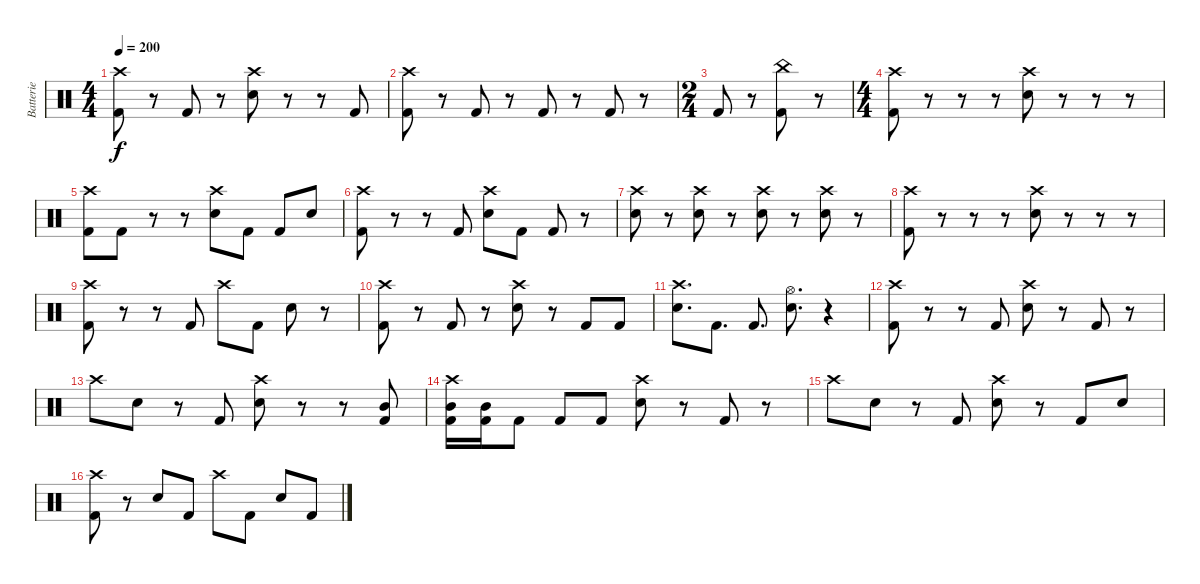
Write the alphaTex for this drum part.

\track ("Batterie" "Batterie") {instrument percussion}
\staff {score}
\articulation defaults
\ts (4 4)
\tempo 200
\clef neutral
\ks c
("Crash high (hit)" "Kick (hit) 2").8{dy f} r.8 "Kick (hit) 2".8 r.8 ("Crash high (hit)" "Electric Snare (hit)").8 r.8 r.8 "Kick (hit) 2".8 |
("Crash high (hit)" "Kick (hit) 2").8 r.8 "Kick (hit) 2".8 r.8 "Kick (hit) 2".8 r.8 "Kick (hit) 2".8 r.8 |
\ts (2 4)
"Kick (hit) 2".8 r.8 ("China (hit)" "Kick (hit) 2").8 r.8 |
\ts (4 4)
("Crash high (hit)" "Kick (hit) 2").8 r.8 r.8 r.8 ("Crash high (hit)" "Electric Snare (hit)").8 r.8 r.8 r.8 |
("Crash high (hit)" "Kick (hit) 2").8 "Kick (hit) 2".8 r.8 r.8 ("Crash high (hit)" "Electric Snare (hit)").8 "Kick (hit) 2".8 "Kick (hit) 2".8 "Electric Snare (hit)".8 |
("Crash high (hit)" "Kick (hit) 2").8 r.8 r.8 "Kick (hit) 2".8 ("Crash high (hit)" "Electric Snare (hit)").8 "Kick (hit) 2".8 "Kick (hit) 2".8 r.8 |
("Crash high (hit)" "Electric Snare (hit)").8 r.8 ("Crash high (hit)" "Electric Snare (hit)").8 r.8 ("Crash high (hit)" "Electric Snare (hit)").8 r.8 ("Crash high (hit)" "Electric Snare (hit)").8 r.8 |
("Crash high (hit)" "Kick (hit) 2").8 r.8 r.8 r.8 ("Crash high (hit)" "Electric Snare (hit)").8 r.8 r.8 r.8 |
("Crash high (hit)" "Kick (hit) 2").8 r.8 r.8 "Kick (hit) 2".8 "Crash high (hit)".8 "Kick (hit) 2".8 "Electric Snare (hit)".8 r.8 |
("Crash high (hit)" "Kick (hit) 2").8 r.8 "Kick (hit) 2".8 r.8 ("Crash high (hit)" "Electric Snare (hit)").8 r.8 "Kick (hit) 2".8 "Kick (hit) 2".8 |
("Crash high (hit)" "Electric Snare (hit)").8{d} "Kick (hit) 2".8{d} "Kick (hit) 2".8{d} ("Hi-Hat (open)" "Electric Snare (hit)").8{d} r.4 |
("Crash high (hit)" "Kick (hit) 2").8 r.8 r.8 "Kick (hit) 2".8 ("Crash high (hit)" "Electric Snare (hit)").8 r.8 "Kick (hit) 2".8 r.8 |
"Crash high (hit)".8 "Electric Snare (hit)".8 r.8 "Kick (hit) 2".8 ("Crash high (hit)" "Electric Snare (hit)").8 r.8 r.8 ("Mid Tom (hit)" "Kick (hit) 2").8 |
("Crash high (hit)" "Mid Tom (hit)" "Kick (hit) 2").16 ("Mid Tom (hit)" "Kick (hit) 2").16 "Kick (hit) 2".8 "Kick (hit) 2".8 "Kick (hit) 2".8 ("Crash high (hit)" "Electric Snare (hit)").8 r.8 "Kick (hit) 2".8 r.8 |
"Crash high (hit)".8 "Electric Snare (hit)".8 r.8 "Kick (hit) 2".8 ("Crash high (hit)" "Electric Snare (hit)").8 r.8 "Kick (hit) 2".8 "Electric Snare (hit)".8 |
("Crash high (hit)" "Kick (hit) 2").8 r.8 "Electric Snare (hit)".8 "Kick (hit) 2".8 "Crash high (hit)".8 "Kick (hit) 2".8 "Electric Snare (hit)".8 "Kick (hit) 2".8
